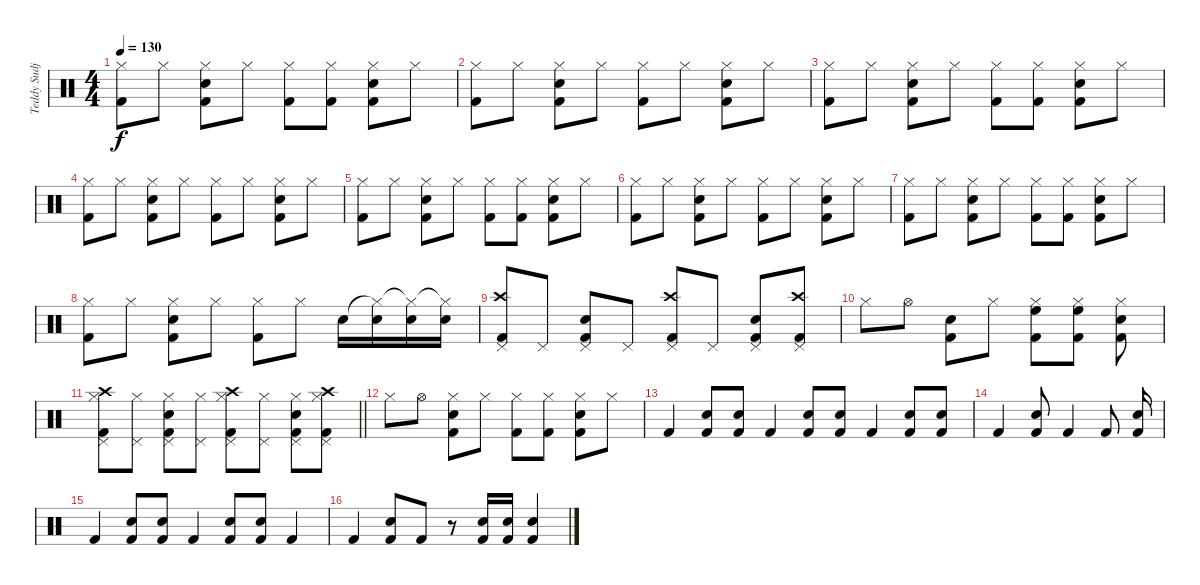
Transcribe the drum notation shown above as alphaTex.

\track ("Teddy Sudjaya (drum)" "Teddy Sudj") {instrument percussion}
\staff {score}
\articulation defaults
\ts (4 4)
\tempo 130
\clef neutral
\ks c
("Hi-Hat (closed)" "Kick (hit) 2").8{dy f} "Hi-Hat (closed)".8 ("Snare (hit) 2" "Hi-Hat (closed)" "Kick (hit) 2").8 "Hi-Hat (closed)".8 ("Hi-Hat (closed)" "Kick (hit) 2").8 ("Hi-Hat (closed)" "Kick (hit) 2").8 ("Snare (hit) 2" "Hi-Hat (closed)" "Kick (hit) 2").8 "Hi-Hat (closed)".8 |
("Hi-Hat (closed)" "Kick (hit) 2").8 "Hi-Hat (closed)".8 ("Snare (hit) 2" "Hi-Hat (closed)" "Kick (hit) 2").8 "Hi-Hat (closed)".8 ("Hi-Hat (closed)" "Kick (hit) 2").8 "Hi-Hat (closed)".8 ("Snare (hit) 2" "Hi-Hat (closed)" "Kick (hit) 2").8 "Hi-Hat (closed)".8 |
("Hi-Hat (closed)" "Kick (hit) 2").8 "Hi-Hat (closed)".8 ("Snare (hit) 2" "Hi-Hat (closed)" "Kick (hit) 2").8 "Hi-Hat (closed)".8 ("Hi-Hat (closed)" "Kick (hit) 2").8 ("Hi-Hat (closed)" "Kick (hit) 2").8 ("Snare (hit) 2" "Hi-Hat (closed)" "Kick (hit) 2").8 "Hi-Hat (closed)".8 |
("Hi-Hat (closed)" "Kick (hit) 2").8 "Hi-Hat (closed)".8 ("Snare (hit) 2" "Hi-Hat (closed)" "Kick (hit) 2").8 "Hi-Hat (closed)".8 ("Hi-Hat (closed)" "Kick (hit) 2").8 "Hi-Hat (closed)".8 ("Snare (hit) 2" "Hi-Hat (closed)" "Kick (hit) 2").8 "Hi-Hat (closed)".8 |
("Hi-Hat (closed)" "Kick (hit) 2").8 "Hi-Hat (closed)".8 ("Snare (hit) 2" "Hi-Hat (closed)" "Kick (hit) 2").8 "Hi-Hat (closed)".8 ("Hi-Hat (closed)" "Kick (hit) 2").8 ("Hi-Hat (closed)" "Kick (hit) 2").8 ("Snare (hit) 2" "Hi-Hat (closed)" "Kick (hit) 2").8 "Hi-Hat (closed)".8 |
("Hi-Hat (closed)" "Kick (hit) 2").8 "Hi-Hat (closed)".8 ("Snare (hit) 2" "Hi-Hat (closed)" "Kick (hit) 2").8 "Hi-Hat (closed)".8 ("Hi-Hat (closed)" "Kick (hit) 2").8 "Hi-Hat (closed)".8 ("Snare (hit) 2" "Hi-Hat (closed)" "Kick (hit) 2").8 "Hi-Hat (closed)".8 |
("Hi-Hat (closed)" "Kick (hit) 2").8 "Hi-Hat (closed)".8 ("Snare (hit) 2" "Hi-Hat (closed)" "Kick (hit) 2").8 "Hi-Hat (closed)".8 ("Hi-Hat (closed)" "Kick (hit) 2").8 ("Hi-Hat (closed)" "Kick (hit) 2").8 ("Snare (hit) 2" "Hi-Hat (closed)" "Kick (hit) 2").8 "Hi-Hat (closed)".8 |
("Hi-Hat (closed)" "Kick (hit) 2").8 "Hi-Hat (closed)".8 ("Snare (hit) 2" "Hi-Hat (closed)" "Kick (hit) 2").8 "Hi-Hat (closed)".8 ("Hi-Hat (closed)" "Kick (hit) 2").8 "Hi-Hat (closed)".8 "Snare (hit) 2".16 ("Hi-Hat (closed)"{t} "Snare (hit) 2").16 ("Hi-Hat (closed)"{t} "Snare (hit) 2").16 ("Hi-Hat (closed)"{t} "Snare (hit) 2").16 |
("Crash high (hit)" "Pedal Hi-Hat (hit)" "Kick (hit) 2").8 "Pedal Hi-Hat (hit)".8 ("Pedal Hi-Hat (hit)" "Snare (hit) 2" "Kick (hit) 2").8 "Pedal Hi-Hat (hit)".8 ("Crash high (hit)" "Pedal Hi-Hat (hit)" "Kick (hit) 2").8 "Pedal Hi-Hat (hit)".8 ("Pedal Hi-Hat (hit)" "Snare (hit) 2" "Kick (hit) 2").8 ("Crash high (hit)" "Pedal Hi-Hat (hit)" "Kick (hit) 2").8 |
"Hi-Hat (closed)".8 "Hi-Hat (open)".8 ("Snare (hit) 2" "Kick (hit) 2").8 "Hi-Hat (closed)".8 ("High Floor Tom (hit)" "Hi-Hat (closed)" "Kick (hit) 2").8 ("High Floor Tom (hit)" "Hi-Hat (closed)" "Kick (hit) 2").8 ("Snare (hit) 2" "Hi-Hat (closed)" "Kick (hit) 2").8 |
\barLineRight lightlight
("Crash high (hit)" "Pedal Hi-Hat (hit)" "Hi-Hat (closed)" "Kick (hit) 2").8 ("Pedal Hi-Hat (hit)" "Hi-Hat (closed)").8 ("Pedal Hi-Hat (hit)" "Snare (hit) 2" "Hi-Hat (closed)" "Kick (hit) 2").8 ("Pedal Hi-Hat (hit)" "Hi-Hat (closed)").8 ("Crash high (hit)" "Pedal Hi-Hat (hit)" "Hi-Hat (closed)" "Kick (hit) 2").8 ("Pedal Hi-Hat (hit)" "Hi-Hat (closed)").8 ("Pedal Hi-Hat (hit)" "Snare (hit) 2" "Hi-Hat (closed)" "Kick (hit) 2").8 ("Crash high (hit)" "Pedal Hi-Hat (hit)" "Hi-Hat (closed)" "Kick (hit) 2").8 |
"Hi-Hat (closed)".8 "Hi-Hat (open)".8 ("Snare (hit) 2" "Hi-Hat (closed)" "Kick (hit) 2").8 "Hi-Hat (closed)".8 ("Hi-Hat (closed)" "Kick (hit) 2").8 ("Hi-Hat (closed)" "Kick (hit) 2").8 ("Snare (hit) 2" "Hi-Hat (closed)" "Kick (hit) 2").8 "Hi-Hat (closed)".8 |
"Kick (hit) 2".4 ("Snare (hit) 2" "Kick (hit) 2").8 ("Snare (hit) 2" "Kick (hit) 2").8 "Kick (hit) 2".4 ("Snare (hit) 2" "Kick (hit) 2").8 ("Snare (hit) 2" "Kick (hit) 2").8 "Kick (hit) 2".4 ("Snare (hit) 2" "Kick (hit) 2").8 ("Snare (hit) 2" "Kick (hit) 2").8 |
"Kick (hit) 2".4 ("Snare (hit) 2" "Kick (hit) 2").8 "Kick (hit) 2".4 "Kick (hit) 2".8 ("Snare (hit) 2" "Kick (hit) 2").16 |
"Kick (hit) 2".4 ("Snare (hit) 2" "Kick (hit) 2").8 ("Snare (hit) 2" "Kick (hit) 2").8 "Kick (hit) 2".4 ("Snare (hit) 2" "Kick (hit) 2").8 ("Snare (hit) 2" "Kick (hit) 2").8 "Kick (hit) 2".4 |
"Kick (hit) 2".4 ("Snare (hit) 2" "Kick (hit) 2").8 "Kick (hit) 2".8 r.8 ("Snare (hit) 2" "Kick (hit) 2").16 ("Snare (hit) 2" "Kick (hit) 2").16 ("Snare (hit) 2" "Kick (hit) 2").4
